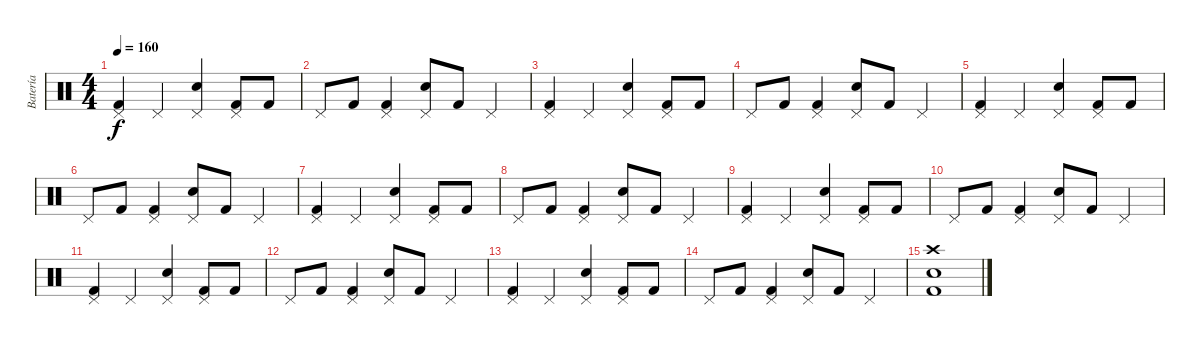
\track ("Batería" "Batería") {instrument percussion}
\staff {score}
\articulation defaults
\ts (4 4)
\tempo 160
\clef neutral
\ks c
("Kick (hit) 2" "Pedal Hi-Hat (hit)").4{dy f} "Pedal Hi-Hat (hit)".4 ("Electric Snare (hit)" "Pedal Hi-Hat (hit)").4 ("Kick (hit) 2" "Pedal Hi-Hat (hit)").8 "Kick (hit) 2".8 |
"Pedal Hi-Hat (hit)".8 "Kick (hit) 2".8 ("Kick (hit) 2" "Pedal Hi-Hat (hit)").4 ("Electric Snare (hit)" "Pedal Hi-Hat (hit)").8 "Kick (hit) 2".8 "Pedal Hi-Hat (hit)".4 |
("Kick (hit) 2" "Pedal Hi-Hat (hit)").4 "Pedal Hi-Hat (hit)".4 ("Electric Snare (hit)" "Pedal Hi-Hat (hit)").4 ("Kick (hit) 2" "Pedal Hi-Hat (hit)").8 "Kick (hit) 2".8 |
"Pedal Hi-Hat (hit)".8 "Kick (hit) 2".8 ("Kick (hit) 2" "Pedal Hi-Hat (hit)").4 ("Electric Snare (hit)" "Pedal Hi-Hat (hit)").8 "Kick (hit) 2".8 "Pedal Hi-Hat (hit)".4 |
("Kick (hit) 2" "Pedal Hi-Hat (hit)").4 "Pedal Hi-Hat (hit)".4 ("Electric Snare (hit)" "Pedal Hi-Hat (hit)").4 ("Kick (hit) 2" "Pedal Hi-Hat (hit)").8 "Kick (hit) 2".8 |
"Pedal Hi-Hat (hit)".8 "Kick (hit) 2".8 ("Kick (hit) 2" "Pedal Hi-Hat (hit)").4 ("Electric Snare (hit)" "Pedal Hi-Hat (hit)").8 "Kick (hit) 2".8 "Pedal Hi-Hat (hit)".4 |
("Kick (hit) 2" "Pedal Hi-Hat (hit)").4 "Pedal Hi-Hat (hit)".4 ("Electric Snare (hit)" "Pedal Hi-Hat (hit)").4 ("Kick (hit) 2" "Pedal Hi-Hat (hit)").8 "Kick (hit) 2".8 |
"Pedal Hi-Hat (hit)".8 "Kick (hit) 2".8 ("Kick (hit) 2" "Pedal Hi-Hat (hit)").4 ("Electric Snare (hit)" "Pedal Hi-Hat (hit)").8 "Kick (hit) 2".8 "Pedal Hi-Hat (hit)".4 |
("Kick (hit) 2" "Pedal Hi-Hat (hit)").4 "Pedal Hi-Hat (hit)".4 ("Electric Snare (hit)" "Pedal Hi-Hat (hit)").4 ("Kick (hit) 2" "Pedal Hi-Hat (hit)").8 "Kick (hit) 2".8 |
"Pedal Hi-Hat (hit)".8 "Kick (hit) 2".8 ("Kick (hit) 2" "Pedal Hi-Hat (hit)").4 ("Electric Snare (hit)" "Pedal Hi-Hat (hit)").8 "Kick (hit) 2".8 "Pedal Hi-Hat (hit)".4 |
("Kick (hit) 2" "Pedal Hi-Hat (hit)").4 "Pedal Hi-Hat (hit)".4 ("Electric Snare (hit)" "Pedal Hi-Hat (hit)").4 ("Kick (hit) 2" "Pedal Hi-Hat (hit)").8 "Kick (hit) 2".8 |
"Pedal Hi-Hat (hit)".8 "Kick (hit) 2".8 ("Kick (hit) 2" "Pedal Hi-Hat (hit)").4 ("Electric Snare (hit)" "Pedal Hi-Hat (hit)").8 "Kick (hit) 2".8 "Pedal Hi-Hat (hit)".4 |
("Kick (hit) 2" "Pedal Hi-Hat (hit)").4 "Pedal Hi-Hat (hit)".4 ("Electric Snare (hit)" "Pedal Hi-Hat (hit)").4 ("Kick (hit) 2" "Pedal Hi-Hat (hit)").8 "Kick (hit) 2".8 |
"Pedal Hi-Hat (hit)".8 "Kick (hit) 2".8 ("Kick (hit) 2" "Pedal Hi-Hat (hit)").4 ("Electric Snare (hit)" "Pedal Hi-Hat (hit)").8 "Kick (hit) 2".8 "Pedal Hi-Hat (hit)".4 |
("Kick (hit) 2" "Electric Snare (hit)" "Crash high (hit)").1
